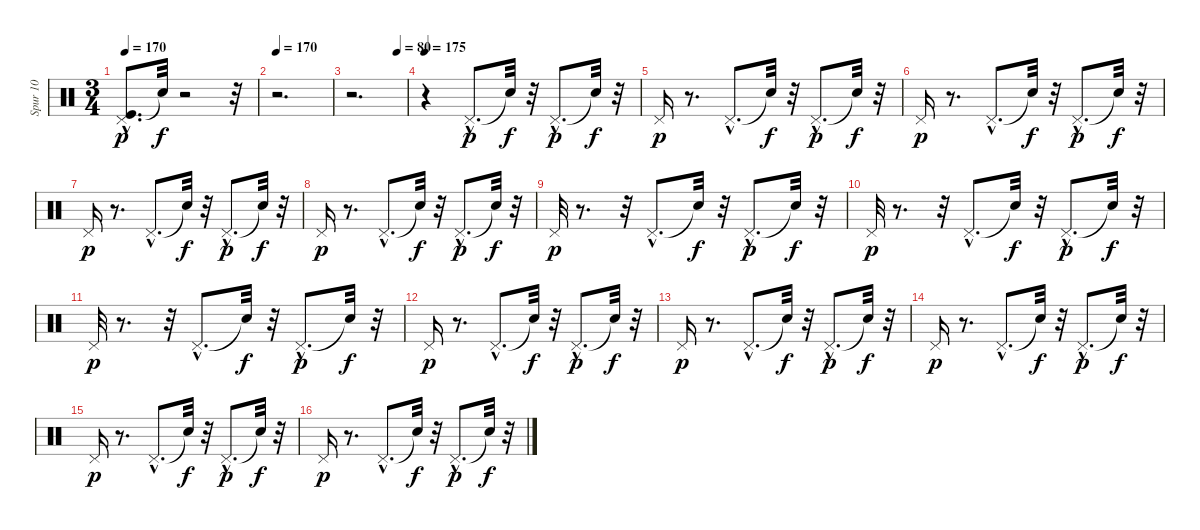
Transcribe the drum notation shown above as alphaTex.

\track ("Spur 10" "Spur 10") {instrument percussion}
\staff {score}
\articulation defaults
\ts (3 4)
\tempo 170
\clef neutral
\ks c
("Kick (hit)"{hac} "Pedal Hi-Hat (hit)").8{d dy p} "Snare (hit)"{t}.32{dy f} r.2 r.32 |
\tempo 170
r.2{d} |
\tempo (80 0.8333333333333334)
r.2{d} |
\tempo 175
r.4 "Pedal Hi-Hat (hit)"{hac}.8{d dy p} "Snare (hit)"{t}.32{dy f} r.32 "Pedal Hi-Hat (hit)"{hac}.8{d dy p} "Snare (hit)"{t}.32{dy f} r.32 |
"Pedal Hi-Hat (hit)".16{dy p} r.8{d} "Pedal Hi-Hat (hit)"{hac}.8{d} "Snare (hit)"{t}.32{dy f} r.32 "Pedal Hi-Hat (hit)"{hac}.8{d dy p} "Snare (hit)"{t}.32{dy f} r.32 |
"Pedal Hi-Hat (hit)".16{dy p} r.8{d} "Pedal Hi-Hat (hit)"{hac}.8{d} "Snare (hit)"{t}.32{dy f} r.32 "Pedal Hi-Hat (hit)"{hac}.8{d dy p} "Snare (hit)"{t}.32{dy f} r.32 |
"Pedal Hi-Hat (hit)".16{dy p} r.8{d} "Pedal Hi-Hat (hit)"{hac}.8{d} "Snare (hit)"{t}.32{dy f} r.32 "Pedal Hi-Hat (hit)"{hac}.8{d dy p} "Snare (hit)"{t}.32{dy f} r.32 |
"Pedal Hi-Hat (hit)".16{dy p} r.8{d} "Pedal Hi-Hat (hit)"{hac}.8{d} "Snare (hit)"{t}.32{dy f} r.32 "Pedal Hi-Hat (hit)"{hac}.8{d dy p} "Snare (hit)"{t}.32{dy f} r.32 |
"Pedal Hi-Hat (hit)".32{dy p} r.8{d} r.32 "Pedal Hi-Hat (hit)"{hac}.8{d} "Snare (hit)"{t}.32{dy f} r.32 "Pedal Hi-Hat (hit)"{hac}.8{d dy p} "Snare (hit)"{t}.32{dy f} r.32 |
"Pedal Hi-Hat (hit)".32{dy p} r.8{d} r.32 "Pedal Hi-Hat (hit)"{hac}.8{d} "Snare (hit)"{t}.32{dy f} r.32 "Pedal Hi-Hat (hit)"{hac}.8{d dy p} "Snare (hit)"{t}.32{dy f} r.32 |
"Pedal Hi-Hat (hit)".32{dy p} r.8{d} r.32 "Pedal Hi-Hat (hit)"{hac}.8{d} "Snare (hit)"{t}.32{dy f} r.32 "Pedal Hi-Hat (hit)"{hac}.8{d dy p} "Snare (hit)"{t}.32{dy f} r.32 |
"Pedal Hi-Hat (hit)".16{dy p} r.8{d} "Pedal Hi-Hat (hit)"{hac}.8{d} "Snare (hit)"{t}.32{dy f} r.32 "Pedal Hi-Hat (hit)"{hac}.8{d dy p} "Snare (hit)"{t}.32{dy f} r.32 |
"Pedal Hi-Hat (hit)".16{dy p} r.8{d} "Pedal Hi-Hat (hit)"{hac}.8{d} "Snare (hit)"{t}.32{dy f} r.32 "Pedal Hi-Hat (hit)"{hac}.8{d dy p} "Snare (hit)"{t}.32{dy f} r.32 |
"Pedal Hi-Hat (hit)".16{dy p} r.8{d} "Pedal Hi-Hat (hit)"{hac}.8{d} "Snare (hit)"{t}.32{dy f} r.32 "Pedal Hi-Hat (hit)"{hac}.8{d dy p} "Snare (hit)"{t}.32{dy f} r.32 |
"Pedal Hi-Hat (hit)".16{dy p} r.8{d} "Pedal Hi-Hat (hit)"{hac}.8{d} "Snare (hit)"{t}.32{dy f} r.32 "Pedal Hi-Hat (hit)"{hac}.8{d dy p} "Snare (hit)"{t}.32{dy f} r.32 |
"Pedal Hi-Hat (hit)".16{dy p} r.8{d} "Pedal Hi-Hat (hit)"{hac}.8{d} "Snare (hit)"{t}.32{dy f} r.32 "Pedal Hi-Hat (hit)"{hac}.8{d dy p} "Snare (hit)"{t}.32{dy f} r.32
